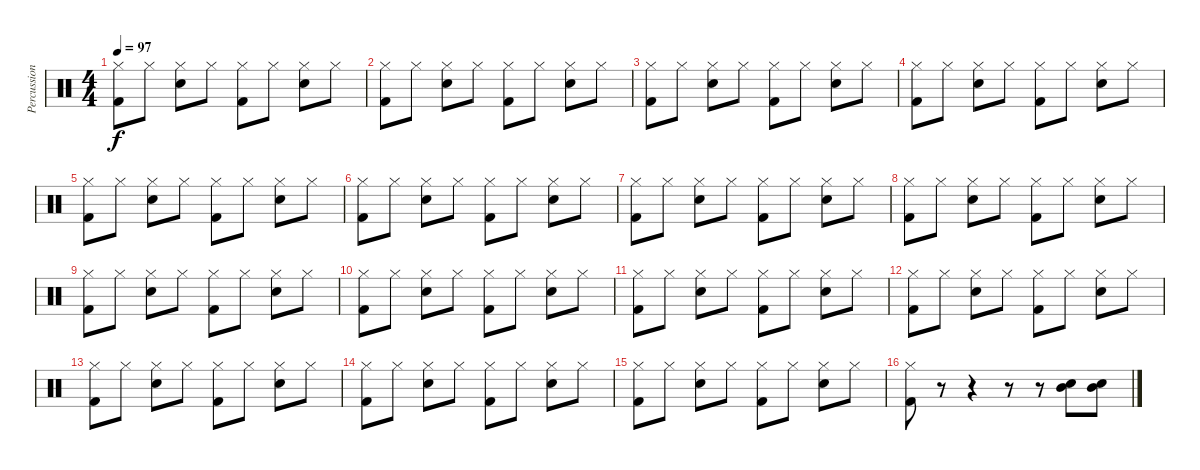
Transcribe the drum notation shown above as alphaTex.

\track ("Percussion" "Percussion") {instrument percussion}
\staff {score}
\articulation defaults
\ts (4 4)
\tempo 97
\clef neutral
\ks c
("Hi-Hat (closed)" "Kick (hit) 2").8{dy f} "Hi-Hat (closed)".8 ("Hi-Hat (closed)" "Snare (hit) 2").8 "Hi-Hat (closed)".8 ("Hi-Hat (closed)" "Kick (hit) 2").8 "Hi-Hat (closed)".8 ("Hi-Hat (closed)" "Snare (hit) 2").8 "Hi-Hat (closed)".8 |
("Hi-Hat (closed)" "Kick (hit) 2").8 "Hi-Hat (closed)".8 ("Hi-Hat (closed)" "Snare (hit) 2").8 "Hi-Hat (closed)".8 ("Hi-Hat (closed)" "Kick (hit) 2").8 "Hi-Hat (closed)".8 ("Hi-Hat (closed)" "Snare (hit) 2").8 "Hi-Hat (closed)".8 |
("Hi-Hat (closed)" "Kick (hit) 2").8 "Hi-Hat (closed)".8 ("Hi-Hat (closed)" "Snare (hit) 2").8 "Hi-Hat (closed)".8 ("Hi-Hat (closed)" "Kick (hit) 2").8 "Hi-Hat (closed)".8 ("Hi-Hat (closed)" "Snare (hit) 2").8 "Hi-Hat (closed)".8 |
("Hi-Hat (closed)" "Kick (hit) 2").8 "Hi-Hat (closed)".8 ("Hi-Hat (closed)" "Snare (hit) 2").8 "Hi-Hat (closed)".8 ("Hi-Hat (closed)" "Kick (hit) 2").8 "Hi-Hat (closed)".8 ("Hi-Hat (closed)" "Snare (hit) 2").8 "Hi-Hat (closed)".8 |
("Hi-Hat (closed)" "Kick (hit) 2").8 "Hi-Hat (closed)".8 ("Hi-Hat (closed)" "Snare (hit) 2").8 "Hi-Hat (closed)".8 ("Hi-Hat (closed)" "Kick (hit) 2").8 "Hi-Hat (closed)".8 ("Hi-Hat (closed)" "Snare (hit) 2").8 "Hi-Hat (closed)".8 |
("Hi-Hat (closed)" "Kick (hit) 2").8 "Hi-Hat (closed)".8 ("Hi-Hat (closed)" "Snare (hit) 2").8 "Hi-Hat (closed)".8 ("Hi-Hat (closed)" "Kick (hit) 2").8 "Hi-Hat (closed)".8 ("Hi-Hat (closed)" "Snare (hit) 2").8 "Hi-Hat (closed)".8 |
("Hi-Hat (closed)" "Kick (hit) 2").8 "Hi-Hat (closed)".8 ("Hi-Hat (closed)" "Snare (hit) 2").8 "Hi-Hat (closed)".8 ("Hi-Hat (closed)" "Kick (hit) 2").8 "Hi-Hat (closed)".8 ("Hi-Hat (closed)" "Snare (hit) 2").8 "Hi-Hat (closed)".8 |
("Hi-Hat (closed)" "Kick (hit) 2").8 "Hi-Hat (closed)".8 ("Hi-Hat (closed)" "Snare (hit) 2").8 "Hi-Hat (closed)".8 ("Hi-Hat (closed)" "Kick (hit) 2").8 "Hi-Hat (closed)".8 ("Hi-Hat (closed)" "Snare (hit) 2").8 "Hi-Hat (closed)".8 |
("Hi-Hat (closed)" "Kick (hit) 2").8 "Hi-Hat (closed)".8 ("Hi-Hat (closed)" "Snare (hit) 2").8 "Hi-Hat (closed)".8 ("Hi-Hat (closed)" "Kick (hit) 2").8 "Hi-Hat (closed)".8 ("Hi-Hat (closed)" "Snare (hit) 2").8 "Hi-Hat (closed)".8 |
("Hi-Hat (closed)" "Kick (hit) 2").8 "Hi-Hat (closed)".8 ("Hi-Hat (closed)" "Snare (hit) 2").8 "Hi-Hat (closed)".8 ("Hi-Hat (closed)" "Kick (hit) 2").8 "Hi-Hat (closed)".8 ("Hi-Hat (closed)" "Snare (hit) 2").8 "Hi-Hat (closed)".8 |
("Hi-Hat (closed)" "Kick (hit) 2").8 "Hi-Hat (closed)".8 ("Hi-Hat (closed)" "Snare (hit) 2").8 "Hi-Hat (closed)".8 ("Hi-Hat (closed)" "Kick (hit) 2").8 "Hi-Hat (closed)".8 ("Hi-Hat (closed)" "Snare (hit) 2").8 "Hi-Hat (closed)".8 |
("Hi-Hat (closed)" "Kick (hit) 2").8 "Hi-Hat (closed)".8 ("Hi-Hat (closed)" "Snare (hit) 2").8 "Hi-Hat (closed)".8 ("Hi-Hat (closed)" "Kick (hit) 2").8 "Hi-Hat (closed)".8 ("Hi-Hat (closed)" "Snare (hit) 2").8 "Hi-Hat (closed)".8 |
("Hi-Hat (closed)" "Kick (hit) 2").8 "Hi-Hat (closed)".8 ("Hi-Hat (closed)" "Snare (hit) 2").8 "Hi-Hat (closed)".8 ("Hi-Hat (closed)" "Kick (hit) 2").8 "Hi-Hat (closed)".8 ("Hi-Hat (closed)" "Snare (hit) 2").8 "Hi-Hat (closed)".8 |
("Hi-Hat (closed)" "Kick (hit) 2").8 "Hi-Hat (closed)".8 ("Hi-Hat (closed)" "Snare (hit) 2").8 "Hi-Hat (closed)".8 ("Hi-Hat (closed)" "Kick (hit) 2").8 "Hi-Hat (closed)".8 ("Hi-Hat (closed)" "Snare (hit) 2").8 "Hi-Hat (closed)".8 |
("Hi-Hat (closed)" "Kick (hit) 2").8 "Hi-Hat (closed)".8 ("Hi-Hat (closed)" "Snare (hit) 2").8 "Hi-Hat (closed)".8 ("Hi-Hat (closed)" "Kick (hit) 2").8 "Hi-Hat (closed)".8 ("Hi-Hat (closed)" "Snare (hit) 2").8 "Hi-Hat (closed)".8 |
("Hi-Hat (closed)" "Kick (hit) 2").8 r.8 r.4 r.8 r.8 ("Snare (hit) 2" "Mid Tom (hit)").8 ("Snare (hit) 2" "Mid Tom (hit)").8
